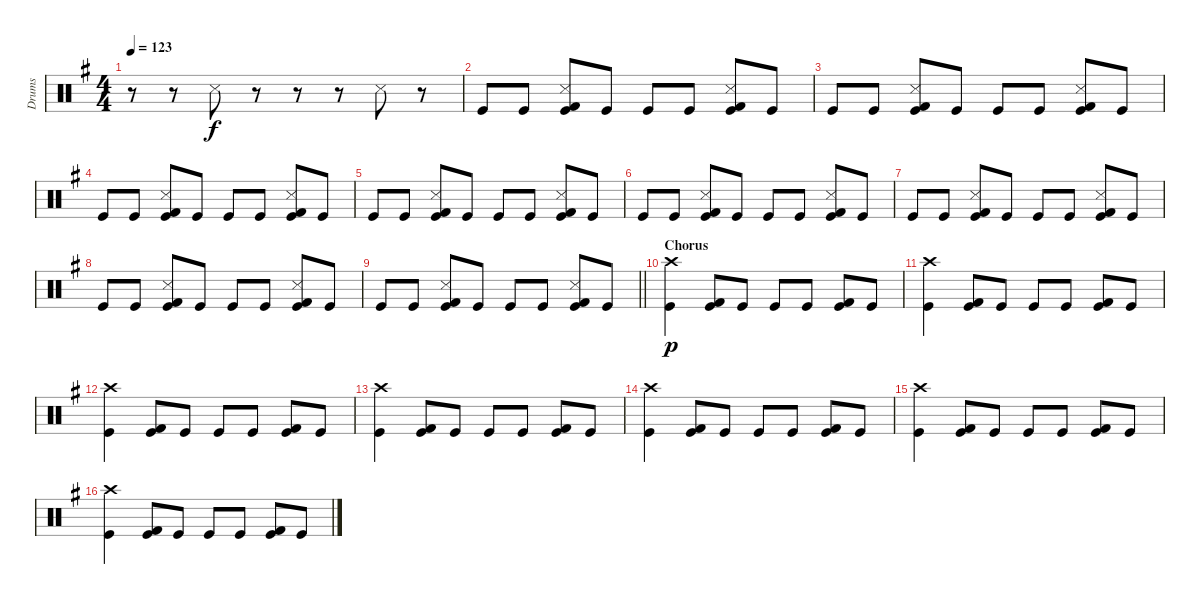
\track ("Drums" "Drums") {instrument percussion}
\staff {score}
\articulation defaults
\ts (4 4)
\tempo 123
\clef neutral
\ks g
r.8{dy f} r.8 "Snare (side stick) 3".8 r.8 r.8 r.8 "Snare (side stick) 3".8 r.8 |
"Kick (hit)".8 "Kick (hit)".8 ("Snare (side stick) 3" "Kick (hit) 2" "Kick (hit)").8 "Kick (hit)".8 "Kick (hit)".8 "Kick (hit)".8 ("Snare (side stick) 3" "Kick (hit) 2" "Kick (hit)").8 "Kick (hit)".8 |
"Kick (hit)".8 "Kick (hit)".8 ("Snare (side stick) 3" "Kick (hit) 2" "Kick (hit)").8 "Kick (hit)".8 "Kick (hit)".8 "Kick (hit)".8 ("Snare (side stick) 3" "Kick (hit) 2" "Kick (hit)").8 "Kick (hit)".8 |
"Kick (hit)".8 "Kick (hit)".8 ("Snare (side stick) 3" "Kick (hit) 2" "Kick (hit)").8 "Kick (hit)".8 "Kick (hit)".8 "Kick (hit)".8 ("Snare (side stick) 3" "Kick (hit) 2" "Kick (hit)").8 "Kick (hit)".8 |
"Kick (hit)".8 "Kick (hit)".8 ("Snare (side stick) 3" "Kick (hit) 2" "Kick (hit)").8 "Kick (hit)".8 "Kick (hit)".8 "Kick (hit)".8 ("Snare (side stick) 3" "Kick (hit) 2" "Kick (hit)").8 "Kick (hit)".8 |
"Kick (hit)".8 "Kick (hit)".8 ("Snare (side stick) 3" "Kick (hit) 2" "Kick (hit)").8 "Kick (hit)".8 "Kick (hit)".8 "Kick (hit)".8 ("Snare (side stick) 3" "Kick (hit) 2" "Kick (hit)").8 "Kick (hit)".8 |
"Kick (hit)".8 "Kick (hit)".8 ("Snare (side stick) 3" "Kick (hit) 2" "Kick (hit)").8 "Kick (hit)".8 "Kick (hit)".8 "Kick (hit)".8 ("Snare (side stick) 3" "Kick (hit) 2" "Kick (hit)").8 "Kick (hit)".8 |
"Kick (hit)".8 "Kick (hit)".8 ("Snare (side stick) 3" "Kick (hit) 2" "Kick (hit)").8 "Kick (hit)".8 "Kick (hit)".8 "Kick (hit)".8 ("Snare (side stick) 3" "Kick (hit) 2" "Kick (hit)").8 "Kick (hit)".8 |
\barLineRight lightlight "Kick (hit)".8 "Kick (hit)".8
("Snare (side stick) 3" "Kick (hit) 2" "Kick (hit)").8 "Kick (hit)".8 "Kick (hit)".8 "Kick (hit)".8 ("Snare (side stick) 3" "Kick (hit) 2" "Kick (hit)").8 "Kick (hit)".8 |
\section ("" "Chorus")
("Crash high (hit)" "Kick (hit)").4{dy p} ("Kick (hit) 2" "Kick (hit)").8 "Kick (hit)".8 "Kick (hit)".8 "Kick (hit)".8 ("Kick (hit) 2" "Kick (hit)").8 "Kick (hit)".8 |
("Crash high (hit)" "Kick (hit)").4 ("Kick (hit) 2" "Kick (hit)").8 "Kick (hit)".8 "Kick (hit)".8 "Kick (hit)".8 ("Kick (hit) 2" "Kick (hit)").8 "Kick (hit)".8 |
("Crash high (hit)" "Kick (hit)").4 ("Kick (hit) 2" "Kick (hit)").8 "Kick (hit)".8 "Kick (hit)".8 "Kick (hit)".8 ("Kick (hit) 2" "Kick (hit)").8 "Kick (hit)".8 |
("Crash high (hit)" "Kick (hit)").4 ("Kick (hit) 2" "Kick (hit)").8 "Kick (hit)".8 "Kick (hit)".8 "Kick (hit)".8 ("Kick (hit) 2" "Kick (hit)").8 "Kick (hit)".8 |
("Crash high (hit)" "Kick (hit)").4 ("Kick (hit) 2" "Kick (hit)").8 "Kick (hit)".8 "Kick (hit)".8 "Kick (hit)".8 ("Kick (hit) 2" "Kick (hit)").8 "Kick (hit)".8 |
("Crash high (hit)" "Kick (hit)").4 ("Kick (hit) 2" "Kick (hit)").8 "Kick (hit)".8 "Kick (hit)".8 "Kick (hit)".8 ("Kick (hit) 2" "Kick (hit)").8 "Kick (hit)".8 |
("Crash high (hit)" "Kick (hit)").4 ("Kick (hit) 2" "Kick (hit)").8 "Kick (hit)".8 "Kick (hit)".8 "Kick (hit)".8 ("Kick (hit) 2" "Kick (hit)").8 "Kick (hit)".8
